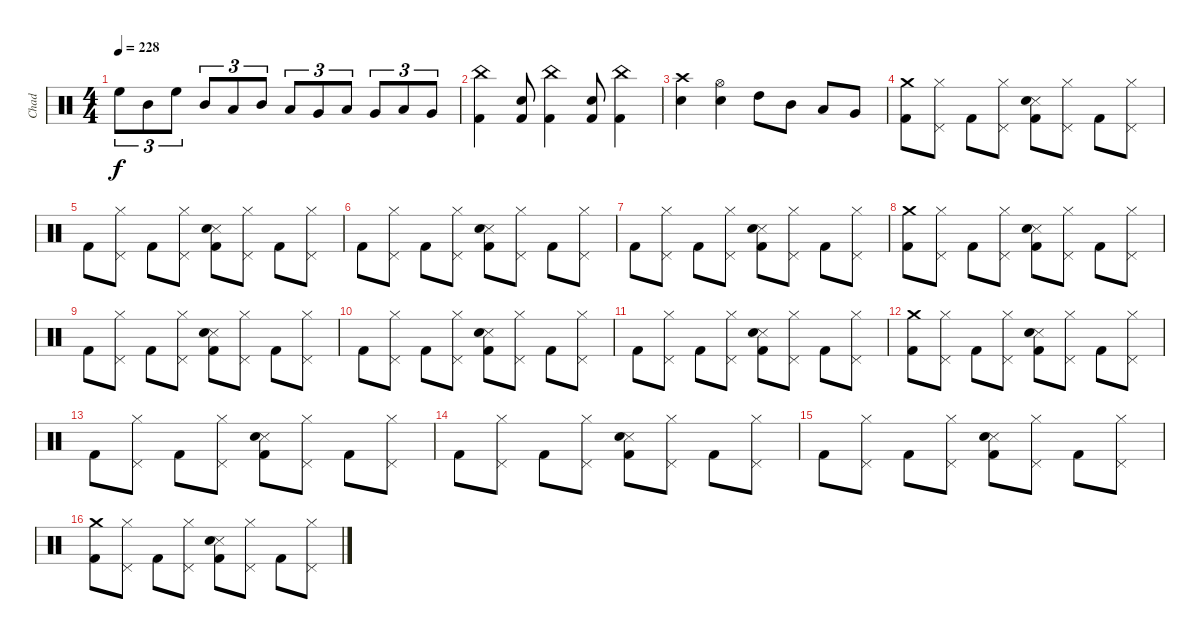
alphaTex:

\track ("Chad" "Chad") {instrument percussion}
\staff {score}
\articulation defaults
\ts (4 4)
\tempo 228
\clef neutral
\ks c "High Floor Tom (hit)".8{tu (3 2) dy f} "Mid Tom (hit)".8{tu (3 2)} "High Floor Tom (hit)".8{tu (3 2)} "Mid Tom (hit)".8{tu (3 2)} "Low Tom (hit)".8{tu (3 2)} "Mid Tom (hit)".8{tu (3 2)} "Low Tom (hit)".8{tu (3 2)} "Very Low Tom (hit)".8{tu (3 2)} "Low Tom (hit)".8{tu (3 2)} "Very Low Tom (hit)".8{tu (3 2)} "Low Floor Tom (hit)".8{tu (3 2)} "Very Low Tom (hit)".8{tu (3 2)}
|
("China (hit)" "Kick (hit) 2").4 ("Electric Snare (hit)" "Kick (hit) 2").8 ("China (hit)" "Kick (hit) 2").4 ("Electric Snare (hit)" "Kick (hit) 2").8 ("China (hit)" "Kick (hit) 2").4 |
("Crash high (hit)" "Electric Snare (hit)").4 ("Hi-Hat (open)" "Electric Snare (hit)").4 "High Tom (hit)".8 "Mid Tom (hit)".8 "Low Tom (hit)".8 "Very Low Tom (hit)".8 |
("Crash medium (hit)" "Kick (hit) 2").8 ("Hi-Hat (closed)" "Pedal Hi-Hat (hit)").8 "Kick (hit) 2".8 ("Hi-Hat (closed)" "Pedal Hi-Hat (hit)").8 ("Snare (side stick) 3" "Electric Snare (hit)" "Kick (hit) 2").8 ("Hi-Hat (closed)" "Pedal Hi-Hat (hit)").8 "Kick (hit) 2".8 ("Hi-Hat (closed)" "Pedal Hi-Hat (hit)").8 |
"Kick (hit) 2".8 ("Hi-Hat (closed)" "Pedal Hi-Hat (hit)").8 "Kick (hit) 2".8 ("Hi-Hat (closed)" "Pedal Hi-Hat (hit)").8 ("Snare (side stick) 3" "Electric Snare (hit)" "Kick (hit) 2").8 ("Hi-Hat (closed)" "Pedal Hi-Hat (hit)").8 "Kick (hit) 2".8 ("Hi-Hat (closed)" "Pedal Hi-Hat (hit)").8 |
"Kick (hit) 2".8 ("Hi-Hat (closed)" "Pedal Hi-Hat (hit)").8 "Kick (hit) 2".8 ("Hi-Hat (closed)" "Pedal Hi-Hat (hit)").8 ("Snare (side stick) 3" "Electric Snare (hit)" "Kick (hit) 2").8 ("Hi-Hat (closed)" "Pedal Hi-Hat (hit)").8 "Kick (hit) 2".8 ("Hi-Hat (closed)" "Pedal Hi-Hat (hit)").8 |
"Kick (hit) 2".8 ("Hi-Hat (closed)" "Pedal Hi-Hat (hit)").8 "Kick (hit) 2".8 ("Hi-Hat (closed)" "Pedal Hi-Hat (hit)").8 ("Snare (side stick) 3" "Electric Snare (hit)" "Kick (hit) 2").8 ("Hi-Hat (closed)" "Pedal Hi-Hat (hit)").8 "Kick (hit) 2".8 ("Hi-Hat (closed)" "Pedal Hi-Hat (hit)").8 |
("Crash medium (hit)" "Kick (hit) 2").8 ("Hi-Hat (closed)" "Pedal Hi-Hat (hit)").8 "Kick (hit) 2".8 ("Hi-Hat (closed)" "Pedal Hi-Hat (hit)").8 ("Snare (side stick) 3" "Electric Snare (hit)" "Kick (hit) 2").8 ("Hi-Hat (closed)" "Pedal Hi-Hat (hit)").8 "Kick (hit) 2".8 ("Hi-Hat (closed)" "Pedal Hi-Hat (hit)").8 |
"Kick (hit) 2".8 ("Hi-Hat (closed)" "Pedal Hi-Hat (hit)").8 "Kick (hit) 2".8 ("Hi-Hat (closed)" "Pedal Hi-Hat (hit)").8 ("Snare (side stick) 3" "Electric Snare (hit)" "Kick (hit) 2").8 ("Hi-Hat (closed)" "Pedal Hi-Hat (hit)").8 "Kick (hit) 2".8 ("Hi-Hat (closed)" "Pedal Hi-Hat (hit)").8 |
"Kick (hit) 2".8 ("Hi-Hat (closed)" "Pedal Hi-Hat (hit)").8 "Kick (hit) 2".8 ("Hi-Hat (closed)" "Pedal Hi-Hat (hit)").8 ("Snare (side stick) 3" "Electric Snare (hit)" "Kick (hit) 2").8 ("Hi-Hat (closed)" "Pedal Hi-Hat (hit)").8 "Kick (hit) 2".8 ("Hi-Hat (closed)" "Pedal Hi-Hat (hit)").8 |
"Kick (hit) 2".8 ("Hi-Hat (closed)" "Pedal Hi-Hat (hit)").8 "Kick (hit) 2".8 ("Hi-Hat (closed)" "Pedal Hi-Hat (hit)").8 ("Snare (side stick) 3" "Electric Snare (hit)" "Kick (hit) 2").8 ("Hi-Hat (closed)" "Pedal Hi-Hat (hit)").8 "Kick (hit) 2".8 ("Hi-Hat (closed)" "Pedal Hi-Hat (hit)").8 |
("Crash medium (hit)" "Kick (hit) 2").8 ("Hi-Hat (closed)" "Pedal Hi-Hat (hit)").8 "Kick (hit) 2".8 ("Hi-Hat (closed)" "Pedal Hi-Hat (hit)").8 ("Snare (side stick) 3" "Electric Snare (hit)" "Kick (hit) 2").8 ("Hi-Hat (closed)" "Pedal Hi-Hat (hit)").8 "Kick (hit) 2".8 ("Hi-Hat (closed)" "Pedal Hi-Hat (hit)").8 |
"Kick (hit) 2".8 ("Hi-Hat (closed)" "Pedal Hi-Hat (hit)").8 "Kick (hit) 2".8 ("Hi-Hat (closed)" "Pedal Hi-Hat (hit)").8 ("Snare (side stick) 3" "Electric Snare (hit)" "Kick (hit) 2").8 ("Hi-Hat (closed)" "Pedal Hi-Hat (hit)").8 "Kick (hit) 2".8 ("Hi-Hat (closed)" "Pedal Hi-Hat (hit)").8 |
"Kick (hit) 2".8 ("Hi-Hat (closed)" "Pedal Hi-Hat (hit)").8 "Kick (hit) 2".8 ("Hi-Hat (closed)" "Pedal Hi-Hat (hit)").8 ("Snare (side stick) 3" "Electric Snare (hit)" "Kick (hit) 2").8 ("Hi-Hat (closed)" "Pedal Hi-Hat (hit)").8 "Kick (hit) 2".8 ("Hi-Hat (closed)" "Pedal Hi-Hat (hit)").8 |
"Kick (hit) 2".8 ("Hi-Hat (closed)" "Pedal Hi-Hat (hit)").8 "Kick (hit) 2".8 ("Hi-Hat (closed)" "Pedal Hi-Hat (hit)").8 ("Snare (side stick) 3" "Electric Snare (hit)" "Kick (hit) 2").8 ("Hi-Hat (closed)" "Pedal Hi-Hat (hit)").8 "Kick (hit) 2".8 ("Hi-Hat (closed)" "Pedal Hi-Hat (hit)").8 |
("Crash medium (hit)" "Kick (hit) 2").8 ("Hi-Hat (closed)" "Pedal Hi-Hat (hit)").8 "Kick (hit) 2".8 ("Hi-Hat (closed)" "Pedal Hi-Hat (hit)").8 ("Snare (side stick) 3" "Electric Snare (hit)" "Kick (hit) 2").8 ("Hi-Hat (closed)" "Pedal Hi-Hat (hit)").8 "Kick (hit) 2".8 ("Hi-Hat (closed)" "Pedal Hi-Hat (hit)").8
